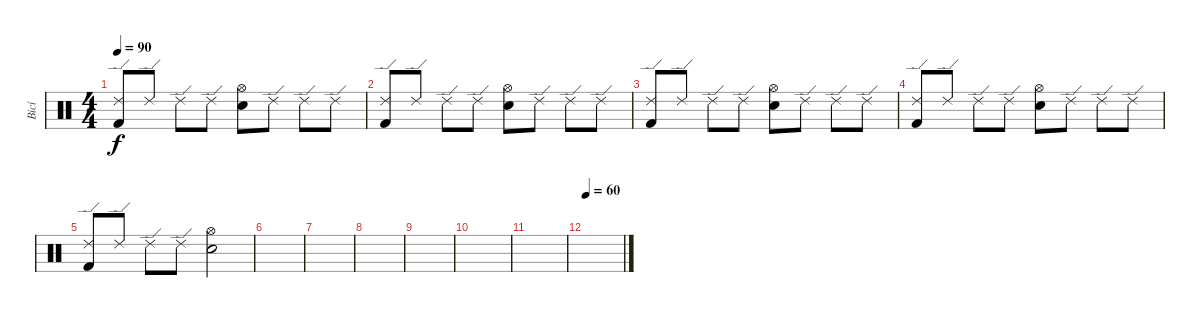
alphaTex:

\track ("Bicí" "Bicí") {instrument percussion}
\staff {score}
\articulation defaults
\ts (4 4)
\tempo 90
\clef neutral
\ks c
("Ride (edge) 2" "Kick (hit) 2").8{dy f} "Ride (edge) 2".8 "Ride (edge) 2".8 "Ride (edge) 2".8 ("Hi-Hat (open)" "Electric Snare (hit)").8 "Ride (edge) 2".8 "Ride (edge) 2".8 "Ride (edge) 2".8 |
("Ride (edge) 2" "Kick (hit) 2").8 "Ride (edge) 2".8 "Ride (edge) 2".8 "Ride (edge) 2".8 ("Hi-Hat (open)" "Electric Snare (hit)").8 "Ride (edge) 2".8 "Ride (edge) 2".8 "Ride (edge) 2".8 |
("Ride (edge) 2" "Kick (hit) 2").8 "Ride (edge) 2".8 "Ride (edge) 2".8 "Ride (edge) 2".8 ("Hi-Hat (open)" "Electric Snare (hit)").8 "Ride (edge) 2".8 "Ride (edge) 2".8 "Ride (edge) 2".8 |
("Ride (edge) 2" "Kick (hit) 2").8 "Ride (edge) 2".8 "Ride (edge) 2".8 "Ride (edge) 2".8 ("Hi-Hat (open)" "Electric Snare (hit)").8 "Ride (edge) 2".8 "Ride (edge) 2".8 "Ride (edge) 2".8 |
("Ride (edge) 2" "Kick (hit) 2").8 "Ride (edge) 2".8 "Ride (edge) 2".8 "Ride (edge) 2".8 ("Hi-Hat (open)" "Electric Snare (hit)").2 |
|
|
|
|
|
|
\tempo 60
